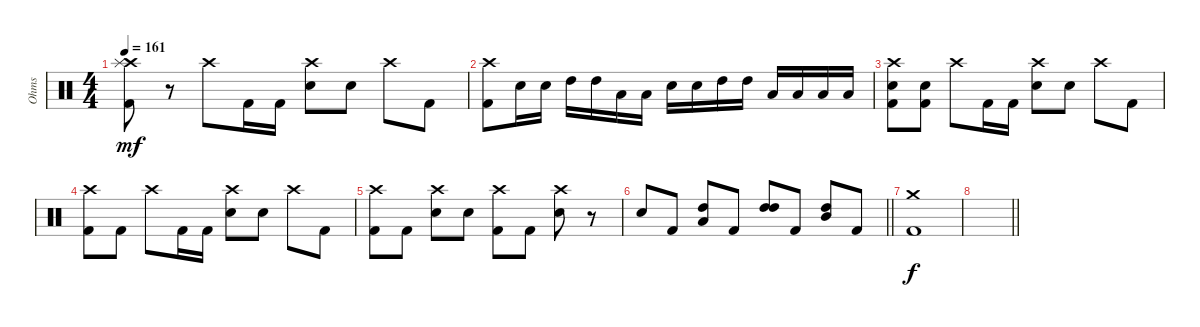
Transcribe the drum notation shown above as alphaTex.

\track ("Ohms" "Ohms") {instrument percussion}
\staff {score}
\articulation defaults
\ts (4 4)
\tempo 161
\clef neutral
\ks c
("Crash high (hit)" "Splash (hit)" "Kick (hit) 2").8{dy mf} r.8 "Crash high (hit)".8 "Kick (hit) 2".16 "Kick (hit) 2".16 ("Crash high (hit)" "Snare (hit) 2").8 "Snare (hit) 2".8 "Crash high (hit)".8 "Kick (hit) 2".8 |
("Crash high (hit)" "Kick (hit) 2").8 "Snare (hit) 2".16 "Snare (hit) 2".16 "High Tom (hit)".16 "High Tom (hit)".16 "Low Tom (hit)".16 "Low Tom (hit)".16 "Snare (hit) 2".16 "Snare (hit) 2".16 "High Tom (hit)".16 "High Tom (hit)".16 "Low Tom (hit)".16 "Low Tom (hit)".16 "Low Tom (hit)".16 "Low Tom (hit)".16 |
("Crash high (hit)" "Snare (hit) 2" "Kick (hit) 2").8 ("Snare (hit) 2" "Kick (hit) 2").8 "Crash high (hit)".8 "Kick (hit) 2".16 "Kick (hit) 2".16 ("Crash high (hit)" "Snare (hit) 2").8 "Snare (hit) 2".8 "Crash high (hit)".8 "Kick (hit) 2".8 |
("Crash high (hit)" "Kick (hit) 2").8 "Kick (hit) 2".8 "Crash high (hit)".8 "Kick (hit) 2".16 "Kick (hit) 2".16 ("Crash high (hit)" "Snare (hit) 2").8 "Snare (hit) 2".8 "Crash high (hit)".8 "Kick (hit) 2".8 |
("Crash high (hit)" "Kick (hit) 2").8 "Kick (hit) 2".8 ("Crash high (hit)" "Snare (hit) 2").8 "Snare (hit) 2".8 ("Crash high (hit)" "Kick (hit) 2").8 "Kick (hit) 2".8 ("Crash high (hit)" "Snare (hit) 2").8 r.8 |
\barLineRight lightlight "Snare (hit) 2".8 "Kick (hit) 2".8
("High Tom (hit)" "Low Tom (hit)").8 "Kick (hit) 2".8 ("High Tom (hit)" "High Tom (hit)").8 "Kick (hit) 2".8 ("High Tom (hit)" "Mid Tom (hit)").8 "Kick (hit) 2".8 |
("Crash medium (hit)" "Kick (hit) 2").1{dy f} |
\barLineRight lightlight
